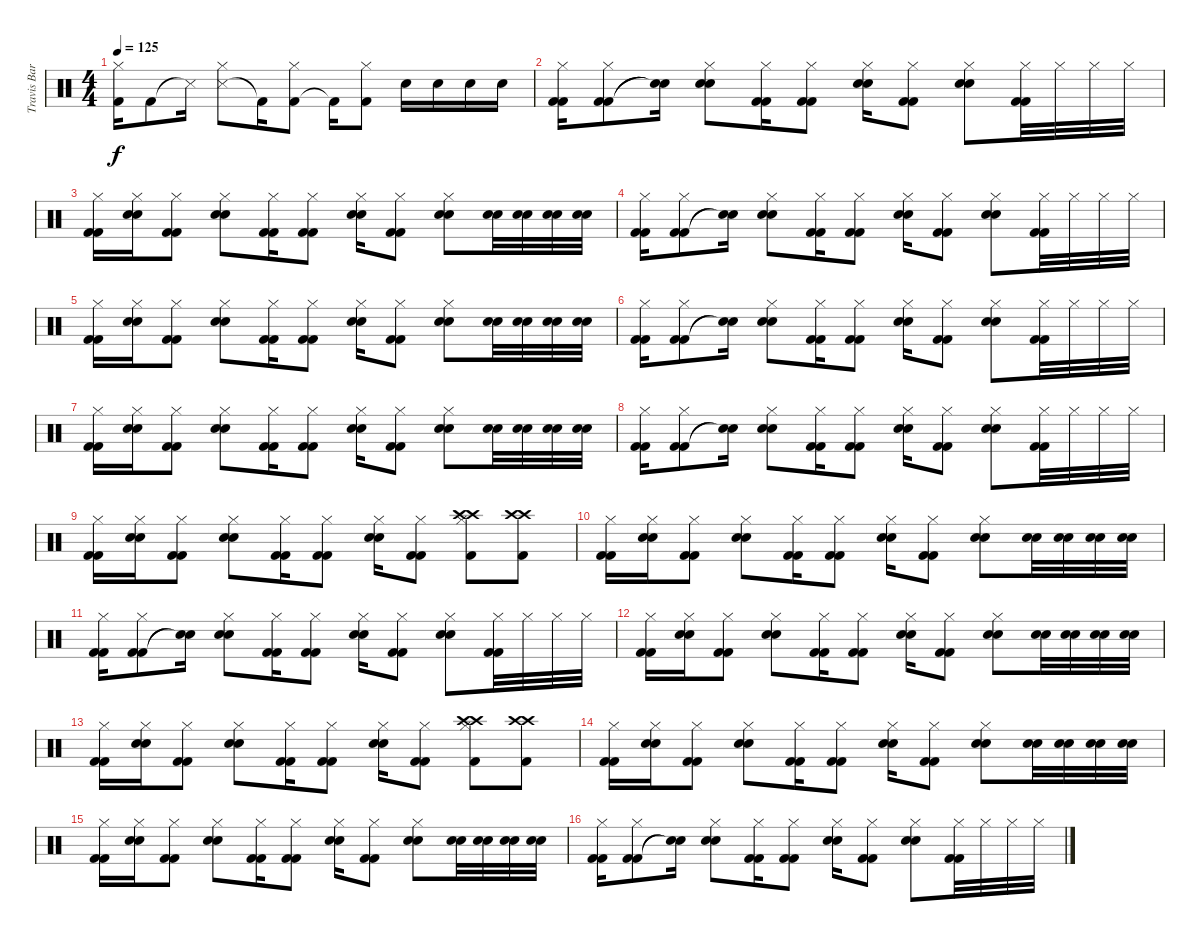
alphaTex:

\track ("Travis Barker - Drums" "Travis Bar") {instrument percussion}
\staff {score}
\articulation defaults
\ts (4 4)
\tempo 125
\clef neutral
\ks c
("Kick (hit) 2" "Hi-Hat (closed)").16{dy f} "Kick (hit) 2".8 "Snare (side stick) 3"{t}.16 ("Snare (side stick) 3" "Hi-Hat (closed)").8 "Kick (hit) 2"{t}.16 ("Kick (hit) 2" "Hi-Hat (closed)").8 "Kick (hit) 2"{t}.16 ("Kick (hit) 2" "Hi-Hat (closed)").8 "Snare (hit) 2".16 "Snare (hit) 2".16 "Snare (hit) 2".16 "Snare (hit) 2".16 |
("Kick (hit) 2" "Kick (hit) 2" "Hi-Hat (closed)").16 ("Kick (hit) 2" "Kick (hit) 2" "Hi-Hat (closed)").8 ("Snare (hit) 2"{t} "Snare (hit) 2"{t}).16 ("Snare (hit) 2" "Snare (hit) 2" "Hi-Hat (closed)").8 ("Kick (hit) 2" "Kick (hit) 2" "Hi-Hat (closed)").16 ("Kick (hit) 2" "Kick (hit) 2" "Hi-Hat (closed)").8 ("Snare (hit) 2" "Snare (hit) 2" "Hi-Hat (closed)").16 ("Kick (hit) 2" "Kick (hit) 2" "Hi-Hat (closed)").8 ("Snare (hit) 2" "Snare (hit) 2" "Hi-Hat (closed)").8 ("Kick (hit) 2" "Kick (hit) 2" "Hi-Hat (closed)").32 "Hi-Hat (closed)".32 "Hi-Hat (closed)".32 "Hi-Hat (closed)".32 |
("Kick (hit) 2" "Kick (hit) 2" "Hi-Hat (closed)").16 ("Snare (hit) 2" "Snare (hit) 2" "Hi-Hat (closed)").16 ("Kick (hit) 2" "Kick (hit) 2" "Hi-Hat (closed)").8 ("Snare (hit) 2" "Snare (hit) 2" "Hi-Hat (closed)").8 ("Kick (hit) 2" "Kick (hit) 2" "Hi-Hat (closed)").16 ("Kick (hit) 2" "Kick (hit) 2" "Hi-Hat (closed)").8 ("Snare (hit) 2" "Snare (hit) 2" "Hi-Hat (closed)").16 ("Kick (hit) 2" "Kick (hit) 2" "Hi-Hat (closed)").8 ("Snare (hit) 2" "Snare (hit) 2" "Hi-Hat (closed)").8 ("Snare (hit) 2" "Snare (hit) 2").32 ("Snare (hit) 2" "Snare (hit) 2").32 ("Snare (hit) 2" "Snare (hit) 2").32 ("Snare (hit) 2" "Snare (hit) 2").32 |
("Kick (hit) 2" "Kick (hit) 2" "Hi-Hat (closed)").16 ("Kick (hit) 2" "Kick (hit) 2" "Hi-Hat (closed)").8 ("Snare (hit) 2"{t} "Snare (hit) 2"{t}).16 ("Snare (hit) 2" "Snare (hit) 2" "Hi-Hat (closed)").8 ("Kick (hit) 2" "Kick (hit) 2" "Hi-Hat (closed)").16 ("Kick (hit) 2" "Kick (hit) 2" "Hi-Hat (closed)").8 ("Snare (hit) 2" "Snare (hit) 2" "Hi-Hat (closed)").16 ("Kick (hit) 2" "Kick (hit) 2" "Hi-Hat (closed)").8 ("Snare (hit) 2" "Snare (hit) 2" "Hi-Hat (closed)").8 ("Kick (hit) 2" "Kick (hit) 2" "Hi-Hat (closed)").32 "Hi-Hat (closed)".32 "Hi-Hat (closed)".32 "Hi-Hat (closed)".32 |
("Kick (hit) 2" "Kick (hit) 2" "Hi-Hat (closed)").16 ("Snare (hit) 2" "Snare (hit) 2" "Hi-Hat (closed)").16 ("Kick (hit) 2" "Kick (hit) 2" "Hi-Hat (closed)").8 ("Snare (hit) 2" "Snare (hit) 2" "Hi-Hat (closed)").8 ("Kick (hit) 2" "Kick (hit) 2" "Hi-Hat (closed)").16 ("Kick (hit) 2" "Kick (hit) 2" "Hi-Hat (closed)").8 ("Snare (hit) 2" "Snare (hit) 2" "Hi-Hat (closed)").16 ("Kick (hit) 2" "Kick (hit) 2" "Hi-Hat (closed)").8 ("Snare (hit) 2" "Snare (hit) 2" "Hi-Hat (closed)").8 ("Snare (hit) 2" "Snare (hit) 2").32 ("Snare (hit) 2" "Snare (hit) 2").32 ("Snare (hit) 2" "Snare (hit) 2").32 ("Snare (hit) 2" "Snare (hit) 2").32 |
("Kick (hit) 2" "Kick (hit) 2" "Hi-Hat (closed)").16 ("Kick (hit) 2" "Kick (hit) 2" "Hi-Hat (closed)").8 ("Snare (hit) 2"{t} "Snare (hit) 2"{t}).16 ("Snare (hit) 2" "Snare (hit) 2" "Hi-Hat (closed)").8 ("Kick (hit) 2" "Kick (hit) 2" "Hi-Hat (closed)").16 ("Kick (hit) 2" "Kick (hit) 2" "Hi-Hat (closed)").8 ("Snare (hit) 2" "Snare (hit) 2" "Hi-Hat (closed)").16 ("Kick (hit) 2" "Kick (hit) 2" "Hi-Hat (closed)").8 ("Snare (hit) 2" "Snare (hit) 2" "Hi-Hat (closed)").8 ("Kick (hit) 2" "Kick (hit) 2" "Hi-Hat (closed)").32 "Hi-Hat (closed)".32 "Hi-Hat (closed)".32 "Hi-Hat (closed)".32 |
("Kick (hit) 2" "Kick (hit) 2" "Hi-Hat (closed)").16 ("Snare (hit) 2" "Snare (hit) 2" "Hi-Hat (closed)").16 ("Kick (hit) 2" "Kick (hit) 2" "Hi-Hat (closed)").8 ("Snare (hit) 2" "Snare (hit) 2" "Hi-Hat (closed)").8 ("Kick (hit) 2" "Kick (hit) 2" "Hi-Hat (closed)").16 ("Kick (hit) 2" "Kick (hit) 2" "Hi-Hat (closed)").8 ("Snare (hit) 2" "Snare (hit) 2" "Hi-Hat (closed)").16 ("Kick (hit) 2" "Kick (hit) 2" "Hi-Hat (closed)").8 ("Snare (hit) 2" "Snare (hit) 2" "Hi-Hat (closed)").8 ("Snare (hit) 2" "Snare (hit) 2").32 ("Snare (hit) 2" "Snare (hit) 2").32 ("Snare (hit) 2" "Snare (hit) 2").32 ("Snare (hit) 2" "Snare (hit) 2").32 |
("Kick (hit) 2" "Kick (hit) 2" "Hi-Hat (closed)").16 ("Kick (hit) 2" "Kick (hit) 2" "Hi-Hat (closed)").8 ("Snare (hit) 2"{t} "Snare (hit) 2"{t}).16 ("Snare (hit) 2" "Snare (hit) 2" "Hi-Hat (closed)").8 ("Kick (hit) 2" "Kick (hit) 2" "Hi-Hat (closed)").16 ("Kick (hit) 2" "Kick (hit) 2" "Hi-Hat (closed)").8 ("Snare (hit) 2" "Snare (hit) 2" "Hi-Hat (closed)").16 ("Kick (hit) 2" "Kick (hit) 2" "Hi-Hat (closed)").8 ("Snare (hit) 2" "Snare (hit) 2" "Hi-Hat (closed)").8 ("Kick (hit) 2" "Kick (hit) 2" "Hi-Hat (closed)").32 "Hi-Hat (closed)".32 "Hi-Hat (closed)".32 "Hi-Hat (closed)".32 |
("Kick (hit) 2" "Kick (hit) 2" "Hi-Hat (closed)").16 ("Snare (hit) 2" "Snare (hit) 2" "Hi-Hat (closed)").16 ("Kick (hit) 2" "Kick (hit) 2" "Hi-Hat (closed)").8 ("Snare (hit) 2" "Snare (hit) 2" "Hi-Hat (closed)").8 ("Kick (hit) 2" "Kick (hit) 2" "Hi-Hat (closed)").16 ("Kick (hit) 2" "Kick (hit) 2" "Hi-Hat (closed)").8 ("Snare (hit) 2" "Snare (hit) 2" "Hi-Hat (closed)").16 ("Kick (hit) 2" "Kick (hit) 2" "Hi-Hat (closed)").8 ("Crash high (hit)" "Crash high (hit)" "Hi-Hat (closed)" "Kick (hit) 2").8 ("Crash high (hit)" "Crash high (hit)" "Kick (hit) 2").8 |
("Kick (hit) 2" "Kick (hit) 2" "Hi-Hat (closed)").16 ("Snare (hit) 2" "Snare (hit) 2" "Hi-Hat (closed)").16 ("Kick (hit) 2" "Kick (hit) 2" "Hi-Hat (closed)").8 ("Snare (hit) 2" "Snare (hit) 2" "Hi-Hat (closed)").8 ("Kick (hit) 2" "Kick (hit) 2" "Hi-Hat (closed)").16 ("Kick (hit) 2" "Kick (hit) 2" "Hi-Hat (closed)").8 ("Snare (hit) 2" "Snare (hit) 2" "Hi-Hat (closed)").16 ("Kick (hit) 2" "Kick (hit) 2" "Hi-Hat (closed)").8 ("Snare (hit) 2" "Snare (hit) 2" "Hi-Hat (closed)").8 ("Snare (hit) 2" "Snare (hit) 2").32 ("Snare (hit) 2" "Snare (hit) 2").32 ("Snare (hit) 2" "Snare (hit) 2").32 ("Snare (hit) 2" "Snare (hit) 2").32 |
("Kick (hit) 2" "Kick (hit) 2" "Hi-Hat (closed)").16 ("Kick (hit) 2" "Kick (hit) 2" "Hi-Hat (closed)").8 ("Snare (hit) 2"{t} "Snare (hit) 2"{t}).16 ("Snare (hit) 2" "Snare (hit) 2" "Hi-Hat (closed)").8 ("Kick (hit) 2" "Kick (hit) 2" "Hi-Hat (closed)").16 ("Kick (hit) 2" "Kick (hit) 2" "Hi-Hat (closed)").8 ("Snare (hit) 2" "Snare (hit) 2" "Hi-Hat (closed)").16 ("Kick (hit) 2" "Kick (hit) 2" "Hi-Hat (closed)").8 ("Snare (hit) 2" "Snare (hit) 2" "Hi-Hat (closed)").8 ("Kick (hit) 2" "Kick (hit) 2" "Hi-Hat (closed)").32 "Hi-Hat (closed)".32 "Hi-Hat (closed)".32 "Hi-Hat (closed)".32 |
("Kick (hit) 2" "Kick (hit) 2" "Hi-Hat (closed)").16 ("Snare (hit) 2" "Snare (hit) 2" "Hi-Hat (closed)").16 ("Kick (hit) 2" "Kick (hit) 2" "Hi-Hat (closed)").8 ("Snare (hit) 2" "Snare (hit) 2" "Hi-Hat (closed)").8 ("Kick (hit) 2" "Kick (hit) 2" "Hi-Hat (closed)").16 ("Kick (hit) 2" "Kick (hit) 2" "Hi-Hat (closed)").8 ("Snare (hit) 2" "Snare (hit) 2" "Hi-Hat (closed)").16 ("Kick (hit) 2" "Kick (hit) 2" "Hi-Hat (closed)").8 ("Snare (hit) 2" "Snare (hit) 2" "Hi-Hat (closed)").8 ("Snare (hit) 2" "Snare (hit) 2").32 ("Snare (hit) 2" "Snare (hit) 2").32 ("Snare (hit) 2" "Snare (hit) 2").32 ("Snare (hit) 2" "Snare (hit) 2").32 |
("Kick (hit) 2" "Kick (hit) 2" "Hi-Hat (closed)").16 ("Snare (hit) 2" "Snare (hit) 2" "Hi-Hat (closed)").16 ("Kick (hit) 2" "Kick (hit) 2" "Hi-Hat (closed)").8 ("Snare (hit) 2" "Snare (hit) 2" "Hi-Hat (closed)").8 ("Kick (hit) 2" "Kick (hit) 2" "Hi-Hat (closed)").16 ("Kick (hit) 2" "Kick (hit) 2" "Hi-Hat (closed)").8 ("Snare (hit) 2" "Snare (hit) 2" "Hi-Hat (closed)").16 ("Kick (hit) 2" "Kick (hit) 2" "Hi-Hat (closed)").8 ("Crash high (hit)" "Crash high (hit)" "Hi-Hat (closed)" "Kick (hit) 2").8 ("Crash high (hit)" "Crash high (hit)" "Kick (hit) 2").8 |
("Kick (hit) 2" "Kick (hit) 2" "Hi-Hat (closed)").16 ("Snare (hit) 2" "Snare (hit) 2" "Hi-Hat (closed)").16 ("Kick (hit) 2" "Kick (hit) 2" "Hi-Hat (closed)").8 ("Snare (hit) 2" "Snare (hit) 2" "Hi-Hat (closed)").8 ("Kick (hit) 2" "Kick (hit) 2" "Hi-Hat (closed)").16 ("Kick (hit) 2" "Kick (hit) 2" "Hi-Hat (closed)").8 ("Snare (hit) 2" "Snare (hit) 2" "Hi-Hat (closed)").16 ("Kick (hit) 2" "Kick (hit) 2" "Hi-Hat (closed)").8 ("Snare (hit) 2" "Snare (hit) 2" "Hi-Hat (closed)").8 ("Snare (hit) 2" "Snare (hit) 2").32 ("Snare (hit) 2" "Snare (hit) 2").32 ("Snare (hit) 2" "Snare (hit) 2").32 ("Snare (hit) 2" "Snare (hit) 2").32 |
("Kick (hit) 2" "Kick (hit) 2" "Hi-Hat (closed)").16 ("Snare (hit) 2" "Snare (hit) 2" "Hi-Hat (closed)").16 ("Kick (hit) 2" "Kick (hit) 2" "Hi-Hat (closed)").8 ("Snare (hit) 2" "Snare (hit) 2" "Hi-Hat (closed)").8 ("Kick (hit) 2" "Kick (hit) 2" "Hi-Hat (closed)").16 ("Kick (hit) 2" "Kick (hit) 2" "Hi-Hat (closed)").8 ("Snare (hit) 2" "Snare (hit) 2" "Hi-Hat (closed)").16 ("Kick (hit) 2" "Kick (hit) 2" "Hi-Hat (closed)").8 ("Snare (hit) 2" "Snare (hit) 2" "Hi-Hat (closed)").8 ("Snare (hit) 2" "Snare (hit) 2").32 ("Snare (hit) 2" "Snare (hit) 2").32 ("Snare (hit) 2" "Snare (hit) 2").32 ("Snare (hit) 2" "Snare (hit) 2").32 |
("Kick (hit) 2" "Kick (hit) 2" "Hi-Hat (closed)").16 ("Kick (hit) 2" "Kick (hit) 2" "Hi-Hat (closed)").8 ("Snare (hit) 2"{t} "Snare (hit) 2"{t}).16 ("Snare (hit) 2" "Snare (hit) 2" "Hi-Hat (closed)").8 ("Kick (hit) 2" "Kick (hit) 2" "Hi-Hat (closed)").16 ("Kick (hit) 2" "Kick (hit) 2" "Hi-Hat (closed)").8 ("Snare (hit) 2" "Snare (hit) 2" "Hi-Hat (closed)").16 ("Kick (hit) 2" "Kick (hit) 2" "Hi-Hat (closed)").8 ("Snare (hit) 2" "Snare (hit) 2" "Hi-Hat (closed)").8 ("Kick (hit) 2" "Kick (hit) 2" "Hi-Hat (closed)").32 "Hi-Hat (closed)".32 "Hi-Hat (closed)".32 "Hi-Hat (closed)".32
